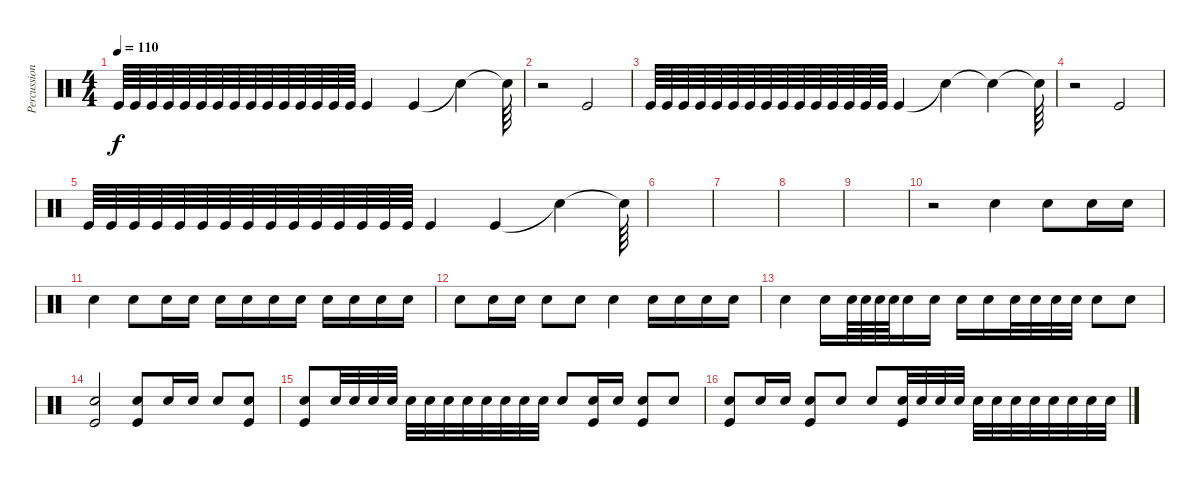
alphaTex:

\track ("Percussions" "Percussion") {instrument percussion}
\staff {score}
\articulation defaults
\ts (4 4)
\tempo 110
\clef neutral
\ks c "Kick (hit)".64{dy f volume 0} "Kick (hit)".64 "Kick (hit)".64 "Kick (hit)".64 "Kick (hit)".64{volume 2} "Kick (hit)".64 "Kick (hit)".64 "Kick (hit)".64 "Kick (hit)".64 "Kick (hit)".64{volume 5} "Kick (hit)".64 "Kick (hit)".64 "Kick (hit)".64 "Kick (hit)".64{volume 10} "Kick (hit)".64 "Kick (hit)".4{volume 13} "Kick (hit)".4{volume 13} "Snare (hit)"{t}.4 "Snare (hit)"{t}.64
|
r.2 "Kick (hit)".2 |
"Kick (hit)".64{volume 0} "Kick (hit)".64 "Kick (hit)".64 "Kick (hit)".64 "Kick (hit)".64{volume 2} "Kick (hit)".64 "Kick (hit)".64 "Kick (hit)".64 "Kick (hit)".64 "Kick (hit)".64{volume 5} "Kick (hit)".64 "Kick (hit)".64 "Kick (hit)".64 "Kick (hit)".64{volume 10} "Kick (hit)".64 "Kick (hit)".4{volume 13} "Snare (hit)"{t}.4 "Snare (hit)"{t}.4 "Snare (hit)"{t}.64 |
r.2 "Kick (hit)".2 |
"Kick (hit)".64{volume 0} "Kick (hit)".64 "Kick (hit)".64 "Kick (hit)".64 "Kick (hit)".64{volume 2} "Kick (hit)".64 "Kick (hit)".64 "Kick (hit)".64 "Kick (hit)".64 "Kick (hit)".64{volume 5} "Kick (hit)".64 "Kick (hit)".64 "Kick (hit)".64 "Kick (hit)".64{volume 10} "Kick (hit)".64 "Kick (hit)".4{volume 13} "Kick (hit)".4{volume 13} "Snare (hit)"{t}.4 "Snare (hit)"{t}.64 |
|
|
|
|
r.2{volume 6} "Snare (hit) 2".4 "Snare (hit) 2".8 "Snare (hit) 2".16 "Snare (hit) 2".16 |
"Snare (hit) 2".4 "Snare (hit) 2".8 "Snare (hit) 2".16 "Snare (hit) 2".16 "Snare (hit) 2".16 "Snare (hit) 2".16 "Snare (hit) 2".16 "Snare (hit) 2".16 "Snare (hit) 2".16 "Snare (hit) 2".16 "Snare (hit) 2".16 "Snare (hit) 2".16 |
"Snare (hit) 2".8{volume 9} "Snare (hit) 2".16 "Snare (hit) 2".16 "Snare (hit) 2".8 "Snare (hit) 2".8 "Snare (hit) 2".4 "Snare (hit) 2".16 "Snare (hit) 2".16 "Snare (hit) 2".16 "Snare (hit) 2".16 |
"Snare (hit) 2".4 "Snare (hit) 2".16 "Snare (hit) 2".64 "Snare (hit) 2".64 "Snare (hit) 2".64 "Snare (hit) 2".64 "Snare (hit) 2".16 "Snare (hit) 2".16 "Snare (hit) 2".16{volume 13} "Snare (hit) 2".16 "Snare (hit) 2".32 "Snare (hit) 2".32 "Snare (hit) 2".32 "Snare (hit) 2".32 "Snare (hit) 2".8 "Snare (hit) 2".8 |
("Snare (hit) 2" "Kick (hit)").2{volume 10} ("Snare (hit) 2" "Kick (hit)").8 "Snare (hit) 2".16 "Snare (hit) 2".16 "Snare (hit) 2".8 ("Snare (hit) 2" "Kick (hit)").8 |
("Snare (hit) 2" "Kick (hit)").8 "Snare (hit) 2".32 "Snare (hit) 2".32 "Snare (hit) 2".32 "Snare (hit) 2".32 "Snare (hit) 2".32 "Snare (hit) 2".32 "Snare (hit) 2".32 "Snare (hit) 2".32 "Snare (hit) 2".32 "Snare (hit) 2".32 "Snare (hit) 2".32 "Snare (hit) 2".32 "Snare (hit) 2".8 ("Snare (hit) 2" "Kick (hit)").16 "Snare (hit) 2".16 ("Snare (hit) 2" "Kick (hit)").8 "Snare (hit) 2".8 |
("Snare (hit) 2" "Kick (hit)").8 "Snare (hit) 2".16 "Snare (hit) 2".16 ("Snare (hit) 2" "Kick (hit)").8 "Snare (hit) 2".8 "Snare (hit) 2".8 ("Snare (hit) 2" "Kick (hit)").32 "Snare (hit) 2".32 "Snare (hit) 2".32 "Snare (hit) 2".32 "Snare (hit) 2".32 "Snare (hit) 2".32 "Snare (hit) 2".32 "Snare (hit) 2".32 "Snare (hit) 2".32 "Snare (hit) 2".32 "Snare (hit) 2".32 "Snare (hit) 2".32
